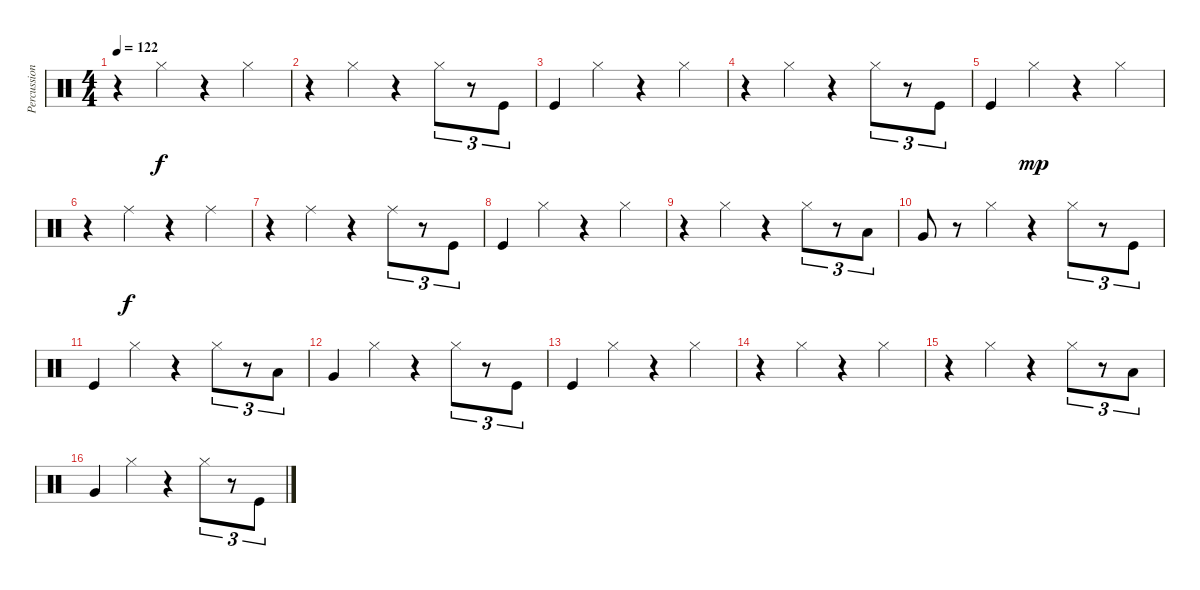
\track ("Percussion" "Percussion") {instrument percussion}
\staff {score}
\articulation defaults
\ts (4 4)
\tempo 122
\clef neutral
\ks c
r.4{dy f} "Hi-Hat (closed)".4 r.4 "Hi-Hat (closed)".4 |
r.4 "Hi-Hat (closed)".4 r.4 "Hi-Hat (closed)".8{tu (3 2)} r.8{tu (3 2)} "Kick (hit)".8{tu (3 2)} |
"Kick (hit)".4 "Hi-Hat (closed)".4 r.4 "Hi-Hat (closed)".4 |
r.4 "Hi-Hat (closed)".4 r.4 "Hi-Hat (closed)".8{tu (3 2)} r.8{tu (3 2)} "Kick (hit)".8{tu (3 2)} |
"Kick (hit)".4{volume 14} "Hi-Hat (closed)".4{dy mp} r.4 "Hi-Hat (closed)".4 |
r.4 "Ride (middle)".4{dy f} r.4 "Ride (middle)".4 |
r.4 "Ride (middle)".4 r.4 "Ride (middle)".8{tu (3 2)} r.8{tu (3 2)} "Kick (hit)".8{tu (3 2)} |
"Kick (hit)".4 "Hi-Hat (closed)".4 r.4 "Hi-Hat (closed)".4 |
r.4 "Hi-Hat (closed)".4 r.4 "Hi-Hat (closed)".8{tu (3 2)} r.8{tu (3 2)} "Low Tom (hit)".8{tu (3 2)} |
"Very Low Tom (hit)".8 r.8 "Hi-Hat (closed)".4 r.4 "Hi-Hat (closed)".8{tu (3 2)} r.8{tu (3 2)} "Kick (hit)".8{tu (3 2)} |
"Kick (hit)".4 "Hi-Hat (closed)".4 r.4 "Hi-Hat (closed)".8{tu (3 2)} r.8{tu (3 2)} "Low Tom (hit)".8{tu (3 2)} |
"Very Low Tom (hit)".4 "Hi-Hat (closed)".4 r.4 "Hi-Hat (closed)".8{tu (3 2)} r.8{tu (3 2)} "Kick (hit)".8{tu (3 2)} |
"Kick (hit)".4 "Hi-Hat (closed)".4 r.4 "Hi-Hat (closed)".4 |
r.4 "Hi-Hat (closed)".4 r.4 "Hi-Hat (closed)".4 |
r.4 "Hi-Hat (closed)".4 r.4 "Hi-Hat (closed)".8{tu (3 2)} r.8{tu (3 2)} "Low Tom (hit)".8{tu (3 2)} |
"Very Low Tom (hit)".4 "Hi-Hat (closed)".4 r.4 "Hi-Hat (closed)".8{tu (3 2)} r.8{tu (3 2)} "Kick (hit)".8{tu (3 2)}
